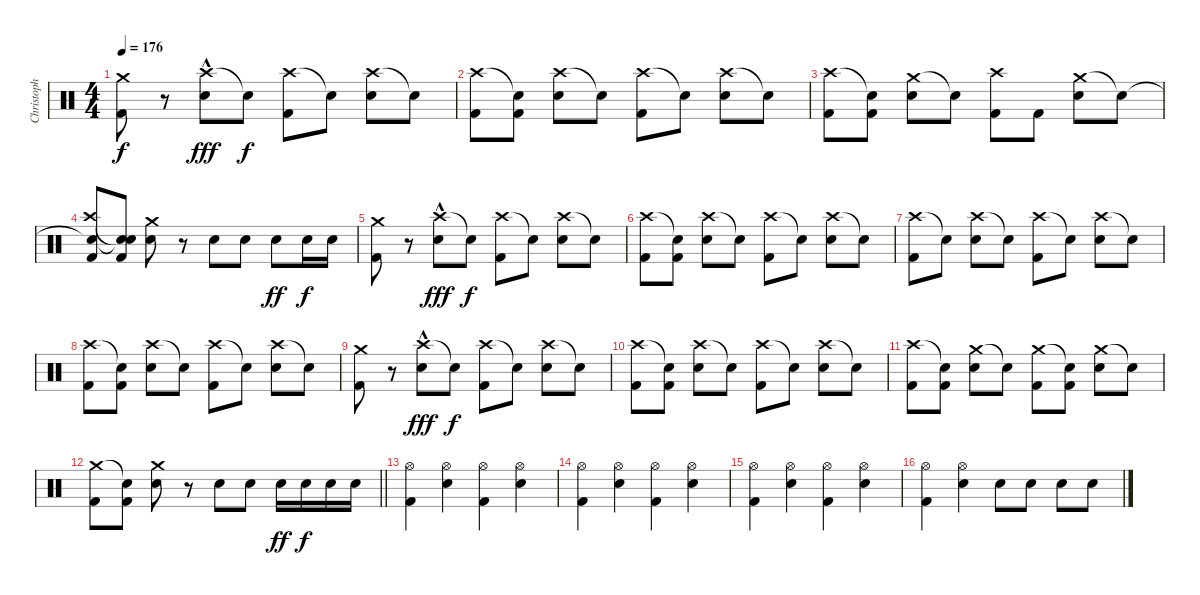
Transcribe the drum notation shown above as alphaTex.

\track ("Christoph" "Christoph") {instrument percussion}
\staff {score}
\articulation defaults
\ts (4 4)
\tempo 176
\clef neutral
\ks c
("Crash medium (hit)" "Kick (hit) 2").8{dy f} r.8 ("Crash high (hit)"{hac} "Snare (hit) 2").8{dy fff} "Snare (hit)"{t}.8{dy f} ("Crash high (hit)" "Kick (hit) 2").8 "Snare (hit)"{t}.8 ("Crash high (hit)" "Snare (hit) 2").8 "Snare (hit)"{t}.8 |
("Crash high (hit)" "Kick (hit) 2").8 ("Snare (hit)"{t} "Kick (hit) 2").8 ("Crash high (hit)" "Snare (hit) 2").8 "Snare (hit)"{t}.8 ("Crash high (hit)" "Kick (hit) 2").8 "Snare (hit)"{t}.8 ("Crash high (hit)" "Snare (hit) 2").8 "Snare (hit)"{t}.8 |
("Crash high (hit)" "Kick (hit) 2").8 ("Snare (hit)"{t} "Kick (hit) 2").8 ("Crash medium (hit)" "Snare (hit) 2").8 "Snare (hit)"{t}.8 ("Crash high (hit)" "Kick (hit) 2").8 "Kick (hit) 2".8 ("Crash medium (hit)" "Snare (hit) 2").8 "Snare (hit)"{t}.8 |
("Snare (hit)"{t} "Crash high (hit)" "Kick (hit) 2").8 ("Snare (hit)"{t} "Snare (hit)"{t} "Kick (hit) 2").8 ("Crash medium (hit)" "Snare (hit) 2").8 r.8 "Snare (hit) 2".8 "Snare (hit) 2".8 "Snare (hit) 2".8{dy ff} "Snare (hit) 2".16{dy f} "Snare (hit) 2".16 |
("Crash medium (hit)" "Kick (hit) 2").8 r.8 ("Crash high (hit)"{hac} "Snare (hit) 2").8{dy fff} "Snare (hit)"{t}.8{dy f} ("Crash high (hit)" "Kick (hit) 2").8 "Snare (hit)"{t}.8 ("Crash high (hit)" "Snare (hit) 2").8 "Snare (hit)"{t}.8 |
("Crash high (hit)" "Kick (hit) 2").8 ("Snare (hit)"{t} "Kick (hit) 2").8 ("Crash high (hit)" "Snare (hit) 2").8 "Snare (hit)"{t}.8 ("Crash high (hit)" "Kick (hit) 2").8 "Snare (hit)"{t}.8 ("Crash high (hit)" "Snare (hit) 2").8 "Snare (hit)"{t}.8 |
("Crash high (hit)" "Kick (hit) 2").8 "Snare (hit)"{t}.8 ("Crash high (hit)" "Snare (hit) 2").8 "Snare (hit)"{t}.8 ("Crash high (hit)" "Kick (hit) 2").8 "Snare (hit)"{t}.8 ("Crash high (hit)" "Snare (hit) 2").8 "Snare (hit)"{t}.8 |
("Crash high (hit)" "Kick (hit) 2").8 ("Snare (hit)"{t} "Kick (hit) 2").8 ("Crash high (hit)" "Snare (hit) 2").8 "Snare (hit)"{t}.8 ("Crash high (hit)" "Kick (hit) 2").8 "Snare (hit)"{t}.8 ("Crash high (hit)" "Snare (hit) 2").8 "Snare (hit)"{t}.8 |
("Crash medium (hit)" "Kick (hit) 2").8 r.8 ("Crash high (hit)"{hac} "Snare (hit) 2").8{dy fff} "Snare (hit)"{t}.8{dy f} ("Crash high (hit)" "Kick (hit) 2").8 "Snare (hit)"{t}.8 ("Crash high (hit)" "Snare (hit) 2").8 "Snare (hit)"{t}.8 |
("Crash high (hit)" "Kick (hit) 2").8 ("Snare (hit)"{t} "Kick (hit) 2").8 ("Crash high (hit)" "Snare (hit) 2").8 "Snare (hit)"{t}.8 ("Crash high (hit)" "Kick (hit) 2").8 "Snare (hit)"{t}.8 ("Crash high (hit)" "Snare (hit) 2").8 "Snare (hit)"{t}.8 |
("Crash high (hit)" "Kick (hit) 2").8 ("Snare (hit)"{t} "Kick (hit) 2").8 ("Crash medium (hit)" "Snare (hit) 2").8 "Snare (hit)"{t}.8 ("Crash medium (hit)" "Kick (hit) 2").8 ("Snare (hit)"{t} "Kick (hit) 2").8 ("Crash medium (hit)" "Snare (hit) 2").8 "Snare (hit)"{t}.8 |
\barLineRight lightlight
("Crash medium (hit)" "Kick (hit) 2").8 ("Snare (hit)"{t} "Kick (hit) 2").8 ("Crash medium (hit)" "Snare (hit) 2").8 r.8 "Snare (hit) 2".8 "Snare (hit) 2".8 "Snare (hit) 2".16{dy ff} "Snare (hit) 2".16{dy f} "Snare (hit) 2".16 "Snare (hit) 2".16 |
("Hi-Hat (open)" "Kick (hit) 2").4 ("Hi-Hat (open)" "Snare (hit) 2").4 ("Hi-Hat (open)" "Kick (hit) 2").4 ("Hi-Hat (open)" "Snare (hit) 2").4 |
("Hi-Hat (open)" "Kick (hit) 2").4 ("Hi-Hat (open)" "Snare (hit) 2").4 ("Hi-Hat (open)" "Kick (hit) 2").4 ("Hi-Hat (open)" "Snare (hit) 2").4 |
("Hi-Hat (open)" "Kick (hit) 2").4 ("Hi-Hat (open)" "Snare (hit) 2").4 ("Hi-Hat (open)" "Kick (hit) 2").4 ("Hi-Hat (open)" "Snare (hit) 2").4 |
("Hi-Hat (open)" "Kick (hit) 2").4 ("Hi-Hat (open)" "Snare (hit) 2").4 "Snare (hit) 2".8 "Snare (hit) 2".8 "Snare (hit) 2".8 "Snare (hit) 2".8
